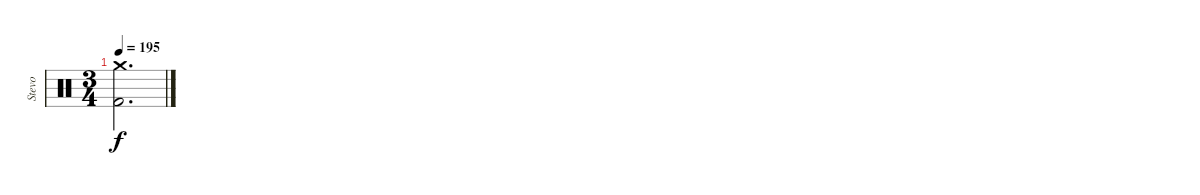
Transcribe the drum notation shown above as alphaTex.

\track ("Stevo" "Stevo") {instrument percussion}
\staff {score}
\articulation defaults
\ts (3 4)
\tempo 195
\clef neutral
\ks c
("Crash medium (hit)" "Kick (hit) 2").2{d dy f}
